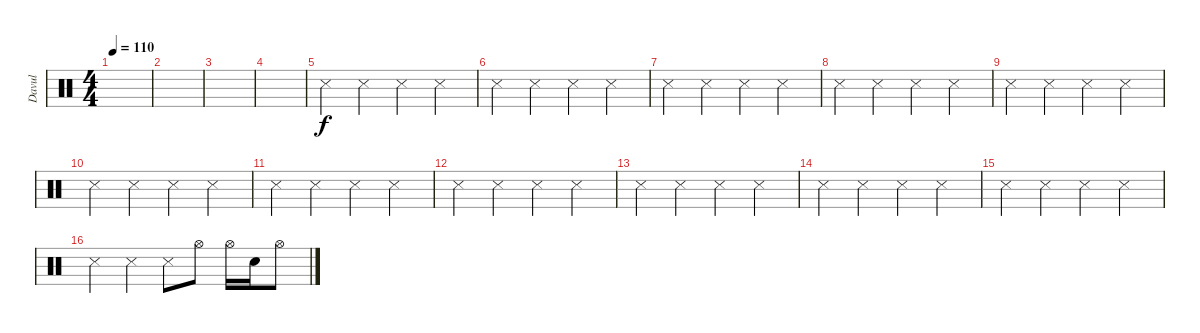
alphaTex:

\track ("Davul" "Davul") {instrument percussion}
\staff {score}
\articulation defaults
\ts (4 4)
\tempo 110
\clef neutral
\ks c
|
|
|
|
"Snare (side stick) 3".4 "Snare (side stick) 3".4 "Snare (side stick) 3".4 "Snare (side stick) 3".4 |
"Snare (side stick) 3".4 "Snare (side stick) 3".4 "Snare (side stick) 3".4 "Snare (side stick) 3".4 |
"Snare (side stick) 3".4 "Snare (side stick) 3".4 "Snare (side stick) 3".4 "Snare (side stick) 3".4 |
"Snare (side stick) 3".4 "Snare (side stick) 3".4 "Snare (side stick) 3".4 "Snare (side stick) 3".4 |
"Snare (side stick) 3".4 "Snare (side stick) 3".4 "Snare (side stick) 3".4 "Snare (side stick) 3".4 |
"Snare (side stick) 3".4 "Snare (side stick) 3".4 "Snare (side stick) 3".4 "Snare (side stick) 3".4 |
"Snare (side stick) 3".4 "Snare (side stick) 3".4 "Snare (side stick) 3".4 "Snare (side stick) 3".4 |
"Snare (side stick) 3".4 "Snare (side stick) 3".4 "Snare (side stick) 3".4 "Snare (side stick) 3".4 |
"Snare (side stick) 3".4 "Snare (side stick) 3".4 "Snare (side stick) 3".4 "Snare (side stick) 3".4 |
"Snare (side stick) 3".4 "Snare (side stick) 3".4 "Snare (side stick) 3".4 "Snare (side stick) 3".4 |
"Snare (side stick) 3".4 "Snare (side stick) 3".4 "Snare (side stick) 3".4 "Snare (side stick) 3".4 |
"Snare (side stick) 3".4 "Snare (side stick) 3".4 "Snare (side stick) 3".8 "Hi-Hat (open)".8 "Hi-Hat (open)".16 "Snare (hit) 2".16 "Hi-Hat (open)".8
